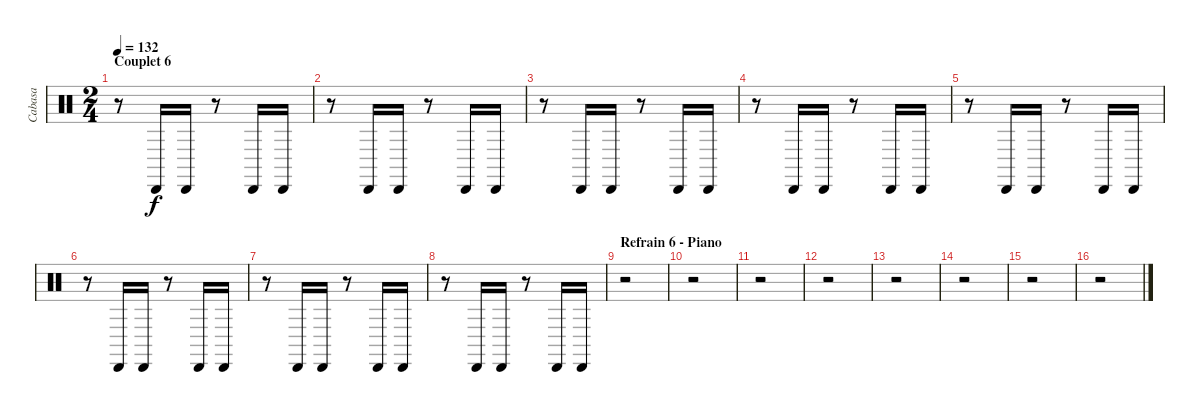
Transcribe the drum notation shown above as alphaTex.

\track ("Cabasa" "Cabasa") {instrument percussion}
\staff {score}
\articulation defaults
\ts (2 4)
\section ("" "Couplet 6")
\tempo 132
\clef neutral
\ks c
r.8{dy f} "Cabasa (hit)".16 "Cabasa (hit)".16 r.8 "Cabasa (hit)".16 "Cabasa (hit)".16 |
r.8 "Cabasa (hit)".16 "Cabasa (hit)".16 r.8 "Cabasa (hit)".16 "Cabasa (hit)".16 |
r.8 "Cabasa (hit)".16 "Cabasa (hit)".16 r.8 "Cabasa (hit)".16 "Cabasa (hit)".16 |
r.8 "Cabasa (hit)".16 "Cabasa (hit)".16 r.8 "Cabasa (hit)".16 "Cabasa (hit)".16 |
r.8 "Cabasa (hit)".16 "Cabasa (hit)".16 r.8 "Cabasa (hit)".16 "Cabasa (hit)".16 |
r.8 "Cabasa (hit)".16 "Cabasa (hit)".16 r.8 "Cabasa (hit)".16 "Cabasa (hit)".16 |
r.8 "Cabasa (hit)".16 "Cabasa (hit)".16 r.8 "Cabasa (hit)".16 "Cabasa (hit)".16 |
r.8 "Cabasa (hit)".16 "Cabasa (hit)".16 r.8 "Cabasa (hit)".16 "Cabasa (hit)".16 |
\section ("" "Refrain 6 - Piano")
r.2 |
r.2 |
r.2 |
r.2 |
r.2 |
r.2 |
r.2 |
r.2
